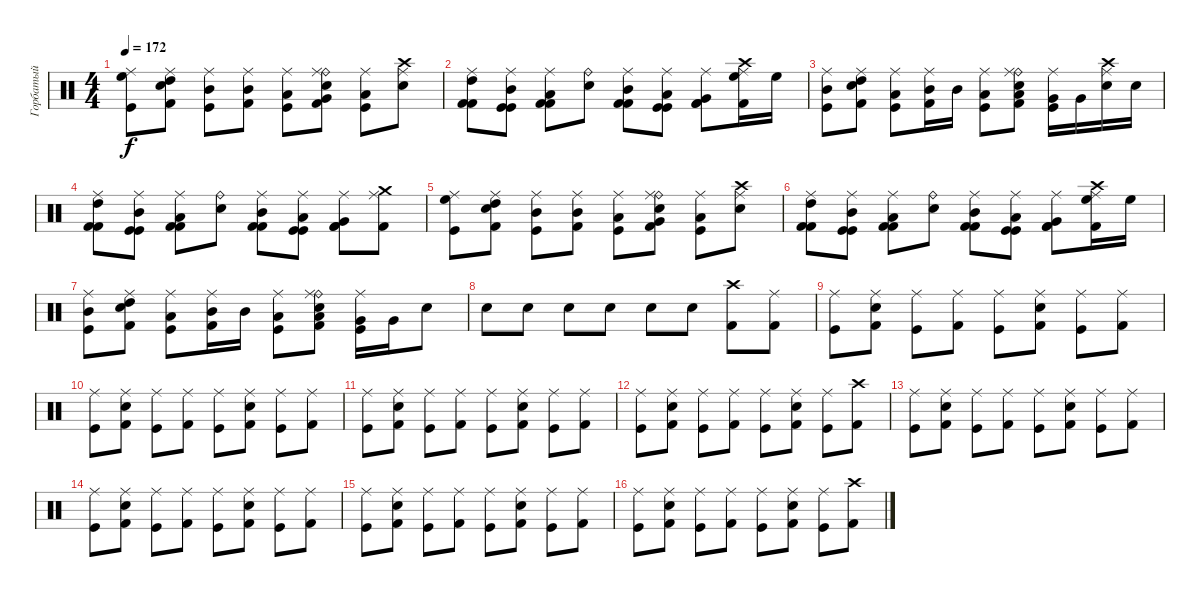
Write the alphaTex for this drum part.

\track ("Горбатый" "Горбатый") {instrument percussion}
\staff {score}
\articulation defaults
\ts (4 4)
\tempo 172
\clef neutral
\ks c
("Ride (middle)" "High Floor Tom (hit)" "Kick (hit)").8{dy f} ("Electric Snare (hit)" "Ride (middle)" "High Tom (hit)" "Kick (hit) 2").8 ("Ride (middle)" "Mid Tom (hit)" "Kick (hit)").8 ("Ride (middle)" "Mid Tom (hit)" "Kick (hit) 2").8 ("Ride (middle)" "Low Tom (hit)" "Kick (hit)").8 ("Ride (bell)" "Electric Snare (hit)" "Ride (middle)" "Very Low Tom (hit)" "Kick (hit) 2").8 ("Ride (middle)" "Low Floor Tom (hit)" "Kick (hit)").8 ("Ride (middle)" "Electric Snare (hit)" "Crash high (hit)").8 |
("Ride (middle)" "Kick (hit) 2" "Kick (hit) 2" "High Tom (hit)").8 ("Ride (middle)" "Kick (hit)" "Kick (hit)" "Mid Tom (hit)").8 ("Ride (middle)" "Kick (hit) 2" "Kick (hit) 2" "Low Tom (hit)").8 ("Ride (bell)" "Electric Snare (hit)").8 ("Ride (middle)" "Kick (hit) 2" "Kick (hit) 2" "Mid Tom (hit)").8 ("Ride (middle)" "Kick (hit)" "Kick (hit)" "Low Tom (hit)").8 ("Ride (middle)" "Kick (hit) 2" "Kick (hit) 2" "Very Low Tom (hit)").8 ("Crash high (hit)" "Ride (middle)" "High Floor Tom (hit)" "Kick (hit) 2").16 "High Floor Tom (hit)".16 |
("Ride (middle)" "Mid Tom (hit)" "Kick (hit)").8 ("Electric Snare (hit)" "Ride (middle)" "High Tom (hit)" "Kick (hit) 2").8 ("Ride (middle)" "Low Tom (hit)" "Kick (hit)").8 ("Ride (middle)" "Mid Tom (hit)" "Kick (hit) 2").16 "Mid Tom (hit)".16 ("Ride (middle)" "Low Tom (hit)" "Kick (hit)").8 ("Ride (bell)" "Electric Snare (hit)" "Ride (middle)" "Low Tom (hit)" "Kick (hit) 2").8 ("Ride (middle)" "Very Low Tom (hit)" "Kick (hit)").16 "Very Low Tom (hit)".16 ("Ride (middle)" "Electric Snare (hit)" "Crash high (hit)").16 "Electric Snare (hit)".16 |
("Ride (middle)" "Kick (hit) 2" "Kick (hit) 2" "High Tom (hit)").8 ("Ride (middle)" "Kick (hit)" "Kick (hit)" "Mid Tom (hit)").8 ("Ride (middle)" "Kick (hit) 2" "Kick (hit) 2" "Low Tom (hit)").8 ("Ride (bell)" "Electric Snare (hit)").8 ("Ride (middle)" "Kick (hit) 2" "Kick (hit) 2" "Mid Tom (hit)").8 ("Ride (middle)" "Kick (hit)" "Kick (hit)" "Low Tom (hit)").8 ("Ride (middle)" "Kick (hit) 2" "Kick (hit) 2" "Very Low Tom (hit)").8 ("Ride (middle)" "Crash medium (hit)" "Kick (hit) 2").8 |
("Ride (middle)" "High Floor Tom (hit)" "Kick (hit)").8 ("Electric Snare (hit)" "Ride (middle)" "High Tom (hit)" "Kick (hit) 2").8 ("Ride (middle)" "Mid Tom (hit)" "Kick (hit)").8 ("Ride (middle)" "Mid Tom (hit)" "Kick (hit) 2").8 ("Ride (middle)" "Low Tom (hit)" "Kick (hit)").8 ("Ride (bell)" "Electric Snare (hit)" "Ride (middle)" "Very Low Tom (hit)" "Kick (hit) 2").8 ("Ride (middle)" "Low Floor Tom (hit)" "Kick (hit)").8 ("Ride (middle)" "Electric Snare (hit)" "Crash high (hit)").8 |
("Ride (middle)" "Kick (hit) 2" "Kick (hit) 2" "High Tom (hit)").8 ("Ride (middle)" "Kick (hit)" "Kick (hit)" "Mid Tom (hit)").8 ("Ride (middle)" "Kick (hit) 2" "Kick (hit) 2" "Low Tom (hit)").8 ("Ride (bell)" "Electric Snare (hit)").8 ("Ride (middle)" "Kick (hit) 2" "Kick (hit) 2" "Mid Tom (hit)").8 ("Ride (middle)" "Kick (hit)" "Kick (hit)" "Low Tom (hit)").8 ("Ride (middle)" "Kick (hit) 2" "Kick (hit) 2" "Very Low Tom (hit)").8 ("Crash high (hit)" "Ride (middle)" "High Floor Tom (hit)" "Kick (hit) 2").16 "High Floor Tom (hit)".16 |
("Ride (middle)" "Mid Tom (hit)" "Kick (hit)").8 ("Electric Snare (hit)" "Ride (middle)" "High Tom (hit)" "Kick (hit) 2").8 ("Ride (middle)" "Low Tom (hit)" "Kick (hit)").8 ("Ride (middle)" "Mid Tom (hit)" "Kick (hit) 2").16 "Mid Tom (hit)".16 ("Ride (middle)" "Low Tom (hit)" "Kick (hit)").8 ("Ride (bell)" "Electric Snare (hit)" "Ride (middle)" "Low Tom (hit)" "Kick (hit) 2").8 ("Ride (middle)" "Very Low Tom (hit)" "Kick (hit)").16 "Very Low Tom (hit)".16 "Electric Snare (hit)".8 |
"Electric Snare (hit)".8 "Electric Snare (hit)".8 "Electric Snare (hit)".8 "Electric Snare (hit)".8 "Electric Snare (hit)".8 "Electric Snare (hit)".8 ("Crash high (hit)" "Kick (hit) 2").8 ("Ride (middle)" "Kick (hit) 2").8 |
("Ride (middle)" "Kick (hit)").8 ("Electric Snare (hit)" "Ride (middle)" "Kick (hit) 2").8 ("Ride (middle)" "Kick (hit)").8 ("Ride (middle)" "Kick (hit) 2").8 ("Ride (middle)" "Kick (hit)").8 ("Electric Snare (hit)" "Ride (middle)" "Kick (hit) 2").8 ("Ride (middle)" "Kick (hit)").8 ("Ride (middle)" "Kick (hit) 2").8 |
("Ride (middle)" "Kick (hit)").8 ("Electric Snare (hit)" "Ride (middle)" "Kick (hit) 2").8 ("Ride (middle)" "Kick (hit)").8 ("Ride (middle)" "Kick (hit) 2").8 ("Ride (middle)" "Kick (hit)").8 ("Electric Snare (hit)" "Ride (middle)" "Kick (hit) 2").8 ("Ride (middle)" "Kick (hit)").8 ("Ride (middle)" "Kick (hit) 2").8 |
("Ride (middle)" "Kick (hit)").8 ("Electric Snare (hit)" "Ride (middle)" "Kick (hit) 2").8 ("Ride (middle)" "Kick (hit)").8 ("Ride (middle)" "Kick (hit) 2").8 ("Ride (middle)" "Kick (hit)").8 ("Electric Snare (hit)" "Ride (middle)" "Kick (hit) 2").8 ("Ride (middle)" "Kick (hit)").8 ("Ride (middle)" "Kick (hit) 2").8 |
("Ride (middle)" "Kick (hit)").8 ("Electric Snare (hit)" "Ride (middle)" "Kick (hit) 2").8 ("Ride (middle)" "Kick (hit)").8 ("Ride (middle)" "Kick (hit) 2").8 ("Ride (middle)" "Kick (hit)").8 ("Electric Snare (hit)" "Ride (middle)" "Kick (hit) 2").8 ("Ride (middle)" "Kick (hit)").8 ("Crash high (hit)" "Kick (hit) 2").8 |
("Ride (middle)" "Kick (hit)").8 ("Electric Snare (hit)" "Ride (middle)" "Kick (hit) 2").8 ("Ride (middle)" "Kick (hit)").8 ("Ride (middle)" "Kick (hit) 2").8 ("Ride (middle)" "Kick (hit)").8 ("Electric Snare (hit)" "Ride (middle)" "Kick (hit) 2").8 ("Ride (middle)" "Kick (hit)").8 ("Ride (middle)" "Kick (hit) 2").8 |
("Ride (middle)" "Kick (hit)").8 ("Electric Snare (hit)" "Ride (middle)" "Kick (hit) 2").8 ("Ride (middle)" "Kick (hit)").8 ("Ride (middle)" "Kick (hit) 2").8 ("Ride (middle)" "Kick (hit)").8 ("Electric Snare (hit)" "Ride (middle)" "Kick (hit) 2").8 ("Ride (middle)" "Kick (hit)").8 ("Ride (middle)" "Kick (hit) 2").8 |
("Ride (middle)" "Kick (hit)").8 ("Electric Snare (hit)" "Ride (middle)" "Kick (hit) 2").8 ("Ride (middle)" "Kick (hit)").8 ("Ride (middle)" "Kick (hit) 2").8 ("Ride (middle)" "Kick (hit)").8 ("Electric Snare (hit)" "Ride (middle)" "Kick (hit) 2").8 ("Ride (middle)" "Kick (hit)").8 ("Ride (middle)" "Kick (hit) 2").8 |
("Ride (middle)" "Kick (hit)").8 ("Electric Snare (hit)" "Ride (middle)" "Kick (hit) 2").8 ("Ride (middle)" "Kick (hit)").8 ("Ride (middle)" "Kick (hit) 2").8 ("Ride (middle)" "Kick (hit)").8 ("Electric Snare (hit)" "Ride (middle)" "Kick (hit) 2").8 ("Ride (middle)" "Kick (hit)").8 ("Crash high (hit)" "Kick (hit) 2").8
